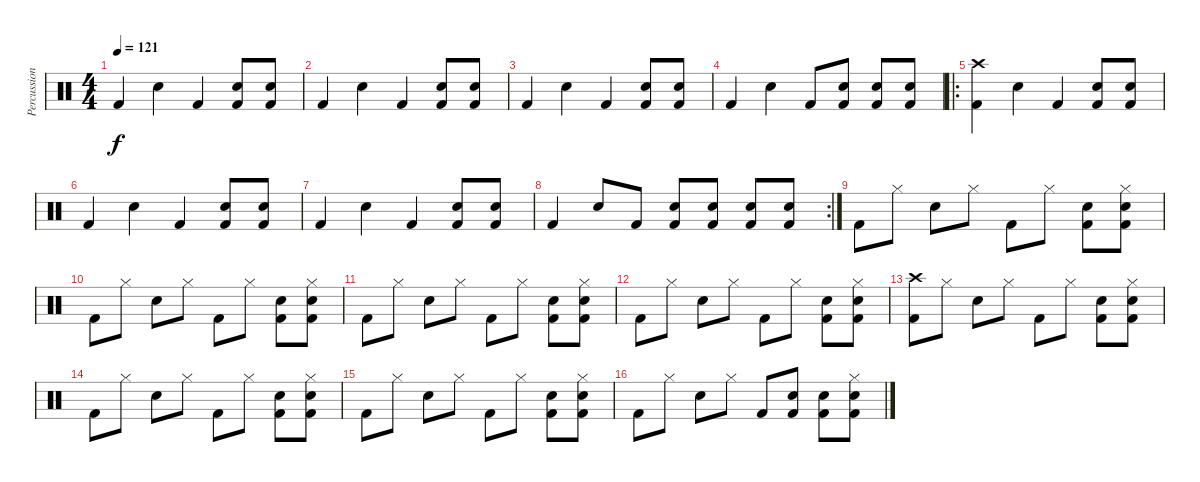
\track ("Percussion" "Percussion") {instrument percussion}
\staff {score}
\articulation defaults
\ts (4 4)
\tempo 121
\clef neutral
\ks c "Kick (hit) 2".4{dy f} "Snare (hit) 2".4 "Kick (hit) 2".4
("Kick (hit) 2" "Snare (hit) 2").8 ("Kick (hit) 2" "Snare (hit) 2").8 |
"Kick (hit) 2".4 "Snare (hit) 2".4 "Kick (hit) 2".4 ("Kick (hit) 2" "Snare (hit) 2").8 ("Kick (hit) 2" "Snare (hit) 2").8 |
"Kick (hit) 2".4 "Snare (hit) 2".4 "Kick (hit) 2".4 ("Kick (hit) 2" "Snare (hit) 2").8 ("Kick (hit) 2" "Snare (hit) 2").8 |
"Kick (hit) 2".4 "Snare (hit) 2".4 "Kick (hit) 2".8 ("Kick (hit) 2" "Snare (hit) 2").8 ("Kick (hit) 2" "Snare (hit) 2").8 ("Kick (hit) 2" "Snare (hit) 2").8 |
\ro
("Crash high (hit)" "Kick (hit) 2").4 "Snare (hit) 2".4 "Kick (hit) 2".4 ("Kick (hit) 2" "Snare (hit) 2").8 ("Kick (hit) 2" "Snare (hit) 2").8 |
"Kick (hit) 2".4 "Snare (hit) 2".4 "Kick (hit) 2".4 ("Kick (hit) 2" "Snare (hit) 2").8 ("Kick (hit) 2" "Snare (hit) 2").8 |
"Kick (hit) 2".4 "Snare (hit) 2".4 "Kick (hit) 2".4 ("Kick (hit) 2" "Snare (hit) 2").8 ("Kick (hit) 2" "Snare (hit) 2").8 |
\rc 2 "Kick (hit) 2".4 "Snare (hit) 2".8 "Kick (hit) 2".8
("Kick (hit) 2" "Snare (hit) 2").8 ("Kick (hit) 2" "Snare (hit) 2").8 ("Kick (hit) 2" "Snare (hit) 2").8 ("Kick (hit) 2" "Snare (hit) 2").8 |
"Kick (hit) 2".8 "Hi-Hat (closed)".8 "Snare (hit) 2".8 "Hi-Hat (closed)".8 "Kick (hit) 2".8 "Hi-Hat (closed)".8 ("Kick (hit) 2" "Snare (hit) 2").8 ("Hi-Hat (closed)" "Kick (hit) 2" "Snare (hit) 2").8 |
"Kick (hit) 2".8 "Hi-Hat (closed)".8 "Snare (hit) 2".8 "Hi-Hat (closed)".8 "Kick (hit) 2".8 "Hi-Hat (closed)".8 ("Kick (hit) 2" "Snare (hit) 2").8 ("Hi-Hat (closed)" "Kick (hit) 2" "Snare (hit) 2").8 |
"Kick (hit) 2".8 "Hi-Hat (closed)".8 "Snare (hit) 2".8 "Hi-Hat (closed)".8 "Kick (hit) 2".8 "Hi-Hat (closed)".8 ("Kick (hit) 2" "Snare (hit) 2").8 ("Hi-Hat (closed)" "Kick (hit) 2" "Snare (hit) 2").8 |
"Kick (hit) 2".8 "Hi-Hat (closed)".8 "Snare (hit) 2".8 "Hi-Hat (closed)".8 "Kick (hit) 2".8 "Hi-Hat (closed)".8 ("Kick (hit) 2" "Snare (hit) 2").8 ("Hi-Hat (closed)" "Kick (hit) 2" "Snare (hit) 2").8 |
("Crash high (hit)" "Kick (hit) 2").8 "Hi-Hat (closed)".8 "Snare (hit) 2".8 "Hi-Hat (closed)".8 "Kick (hit) 2".8 "Hi-Hat (closed)".8 ("Kick (hit) 2" "Snare (hit) 2").8 ("Hi-Hat (closed)" "Kick (hit) 2" "Snare (hit) 2").8 |
"Kick (hit) 2".8 "Hi-Hat (closed)".8 "Snare (hit) 2".8 "Hi-Hat (closed)".8 "Kick (hit) 2".8 "Hi-Hat (closed)".8 ("Kick (hit) 2" "Snare (hit) 2").8 ("Hi-Hat (closed)" "Kick (hit) 2" "Snare (hit) 2").8 |
"Kick (hit) 2".8 "Hi-Hat (closed)".8 "Snare (hit) 2".8 "Hi-Hat (closed)".8 "Kick (hit) 2".8 "Hi-Hat (closed)".8 ("Kick (hit) 2" "Snare (hit) 2").8 ("Hi-Hat (closed)" "Kick (hit) 2" "Snare (hit) 2").8 |
"Kick (hit) 2".8 "Hi-Hat (closed)".8 "Snare (hit) 2".8 "Hi-Hat (closed)".8 "Kick (hit) 2".8 ("Kick (hit) 2" "Snare (hit) 2").8 ("Kick (hit) 2" "Snare (hit) 2").8 ("Hi-Hat (closed)" "Kick (hit) 2" "Snare (hit) 2").8
